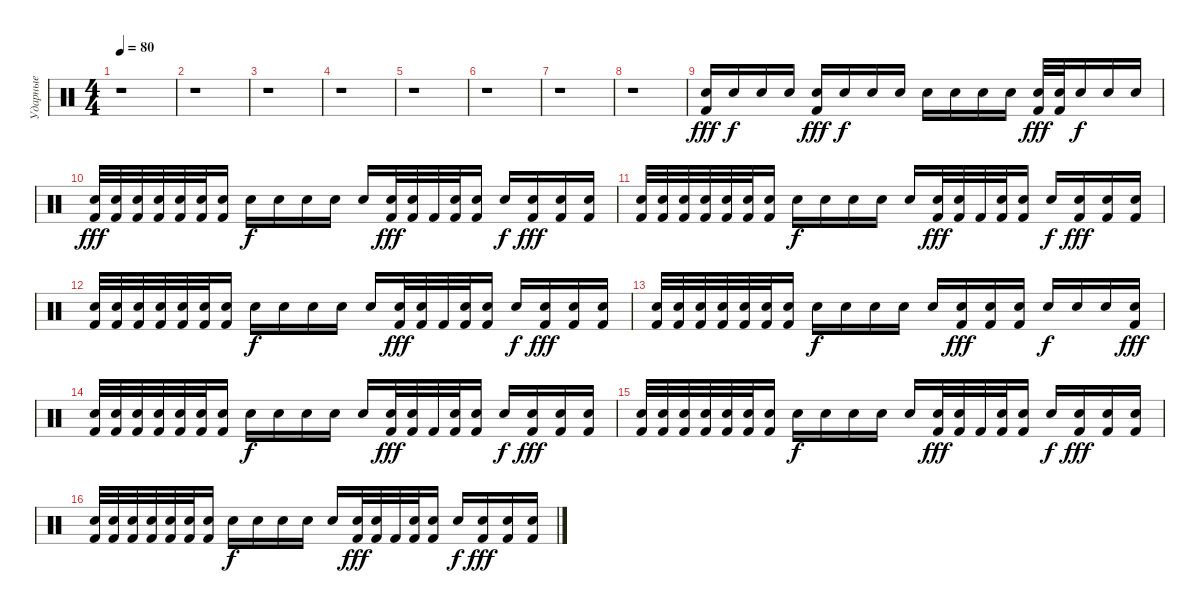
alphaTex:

\track ("Ударные" "Ударные") {instrument percussion}
\staff
\articulation defaults
\ts (4 4)
\tempo 80
\clef neutral
\ks c
r.1{dy fff} |
r.1 |
r.1 |
r.1 |
r.1 |
r.1 |
r.1 |
r.1 |
("Kick (hit) 2" "Snare (hit)").16 "Snare (hit)".16{dy f} "Snare (hit)".16 "Snare (hit)".16 ("Kick (hit) 2" "Snare (hit)").16{dy fff} "Snare (hit)".16{dy f} "Snare (hit)".16 "Snare (hit)".16 "Snare (hit)".16 "Snare (hit)".16 "Snare (hit)".16 "Snare (hit)".16 ("Kick (hit) 2" "Snare (hit)").32{dy fff} ("Kick (hit) 2" "Snare (hit)").32 "Snare (hit)".16{dy f} "Snare (hit)".16 "Snare (hit)".16 |
("Kick (hit) 2" "Snare (hit)").32{dy fff} ("Kick (hit) 2" "Snare (hit)").32 ("Kick (hit) 2" "Snare (hit)").32 ("Kick (hit) 2" "Snare (hit)").32 ("Kick (hit) 2" "Snare (hit)").32 ("Kick (hit) 2" "Snare (hit)").32 ("Kick (hit) 2" "Snare (hit)").16 "Snare (hit)".16{dy f} "Snare (hit)".16 "Snare (hit)".16 "Snare (hit)".16 "Snare (hit)".16 ("Kick (hit) 2" "Snare (hit)").32{dy fff} ("Kick (hit) 2" "Snare (hit)").32 "Kick (hit) 2".32 ("Kick (hit) 2" "Snare (hit)").32 ("Kick (hit) 2" "Snare (hit)").16 "Snare (hit)".16{dy f} ("Kick (hit) 2" "Snare (hit)").16{dy fff} ("Kick (hit) 2" "Snare (hit)").16 ("Kick (hit) 2" "Snare (hit)").16 |
("Kick (hit) 2" "Snare (hit)").32 ("Kick (hit) 2" "Snare (hit)").32 ("Kick (hit) 2" "Snare (hit)").32 ("Kick (hit) 2" "Snare (hit)").32 ("Kick (hit) 2" "Snare (hit)").32 ("Kick (hit) 2" "Snare (hit)").32 ("Kick (hit) 2" "Snare (hit)").16 "Snare (hit)".16{dy f} "Snare (hit)".16 "Snare (hit)".16 "Snare (hit)".16 "Snare (hit)".16 ("Kick (hit) 2" "Snare (hit)").32{dy fff} ("Kick (hit) 2" "Snare (hit)").32 "Kick (hit) 2".32 ("Kick (hit) 2" "Snare (hit)").32 ("Kick (hit) 2" "Snare (hit)").16 "Snare (hit)".16{dy f} ("Kick (hit) 2" "Snare (hit)").16{dy fff} ("Kick (hit) 2" "Snare (hit)").16 ("Kick (hit) 2" "Snare (hit)").16 |
("Kick (hit) 2" "Snare (hit)").32 ("Kick (hit) 2" "Snare (hit)").32 ("Kick (hit) 2" "Snare (hit)").32 ("Kick (hit) 2" "Snare (hit)").32 ("Kick (hit) 2" "Snare (hit)").32 ("Kick (hit) 2" "Snare (hit)").32 ("Kick (hit) 2" "Snare (hit)").16 "Snare (hit)".16{dy f} "Snare (hit)".16 "Snare (hit)".16 "Snare (hit)".16 "Snare (hit)".16 ("Kick (hit) 2" "Snare (hit)").32{dy fff} ("Kick (hit) 2" "Snare (hit)").32 "Kick (hit) 2".32 ("Kick (hit) 2" "Snare (hit)").32 ("Kick (hit) 2" "Snare (hit)").16 "Snare (hit)".16{dy f} ("Kick (hit) 2" "Snare (hit)").16{dy fff} ("Kick (hit) 2" "Snare (hit)").16 ("Kick (hit) 2" "Snare (hit)").16 |
("Kick (hit) 2" "Snare (hit)").32 ("Kick (hit) 2" "Snare (hit)").32 ("Kick (hit) 2" "Snare (hit)").32 ("Kick (hit) 2" "Snare (hit)").32 ("Kick (hit) 2" "Snare (hit)").32 ("Kick (hit) 2" "Snare (hit)").32 ("Kick (hit) 2" "Snare (hit)").16 "Snare (hit)".16{dy f} "Snare (hit)".16 "Snare (hit)".16 "Snare (hit)".16 "Snare (hit)".16 ("Kick (hit) 2" "Snare (hit)").16{dy fff} ("Kick (hit) 2" "Snare (hit)").16 ("Kick (hit) 2" "Snare (hit)").16 "Snare (hit)".16{dy f} "Snare (hit)".16 "Snare (hit)".16 ("Kick (hit) 2" "Snare (hit)").16{dy fff} |
("Kick (hit) 2" "Snare (hit)").32 ("Kick (hit) 2" "Snare (hit)").32 ("Kick (hit) 2" "Snare (hit)").32 ("Kick (hit) 2" "Snare (hit)").32 ("Kick (hit) 2" "Snare (hit)").32 ("Kick (hit) 2" "Snare (hit)").32 ("Kick (hit) 2" "Snare (hit)").16 "Snare (hit)".16{dy f} "Snare (hit)".16 "Snare (hit)".16 "Snare (hit)".16 "Snare (hit)".16 ("Kick (hit) 2" "Snare (hit)").32{dy fff} ("Kick (hit) 2" "Snare (hit)").32 "Kick (hit) 2".32 ("Kick (hit) 2" "Snare (hit)").32 ("Kick (hit) 2" "Snare (hit)").16 "Snare (hit)".16{dy f} ("Kick (hit) 2" "Snare (hit)").16{dy fff} ("Kick (hit) 2" "Snare (hit)").16 ("Kick (hit) 2" "Snare (hit)").16 |
("Kick (hit) 2" "Snare (hit)").32 ("Kick (hit) 2" "Snare (hit)").32 ("Kick (hit) 2" "Snare (hit)").32 ("Kick (hit) 2" "Snare (hit)").32 ("Kick (hit) 2" "Snare (hit)").32 ("Kick (hit) 2" "Snare (hit)").32 ("Kick (hit) 2" "Snare (hit)").16 "Snare (hit)".16{dy f} "Snare (hit)".16 "Snare (hit)".16 "Snare (hit)".16 "Snare (hit)".16 ("Kick (hit) 2" "Snare (hit)").32{dy fff} ("Kick (hit) 2" "Snare (hit)").32 "Kick (hit) 2".32 ("Kick (hit) 2" "Snare (hit)").32 ("Kick (hit) 2" "Snare (hit)").16 "Snare (hit)".16{dy f} ("Kick (hit) 2" "Snare (hit)").16{dy fff} ("Kick (hit) 2" "Snare (hit)").16 ("Kick (hit) 2" "Snare (hit)").16 |
("Kick (hit) 2" "Snare (hit)").32 ("Kick (hit) 2" "Snare (hit)").32 ("Kick (hit) 2" "Snare (hit)").32 ("Kick (hit) 2" "Snare (hit)").32 ("Kick (hit) 2" "Snare (hit)").32 ("Kick (hit) 2" "Snare (hit)").32 ("Kick (hit) 2" "Snare (hit)").16 "Snare (hit)".16{dy f} "Snare (hit)".16 "Snare (hit)".16 "Snare (hit)".16 "Snare (hit)".16 ("Kick (hit) 2" "Snare (hit)").32{dy fff} ("Kick (hit) 2" "Snare (hit)").32 "Kick (hit) 2".32 ("Kick (hit) 2" "Snare (hit)").32 ("Kick (hit) 2" "Snare (hit)").16 "Snare (hit)".16{dy f} ("Kick (hit) 2" "Snare (hit)").16{dy fff} ("Kick (hit) 2" "Snare (hit)").16 ("Kick (hit) 2" "Snare (hit)").16
